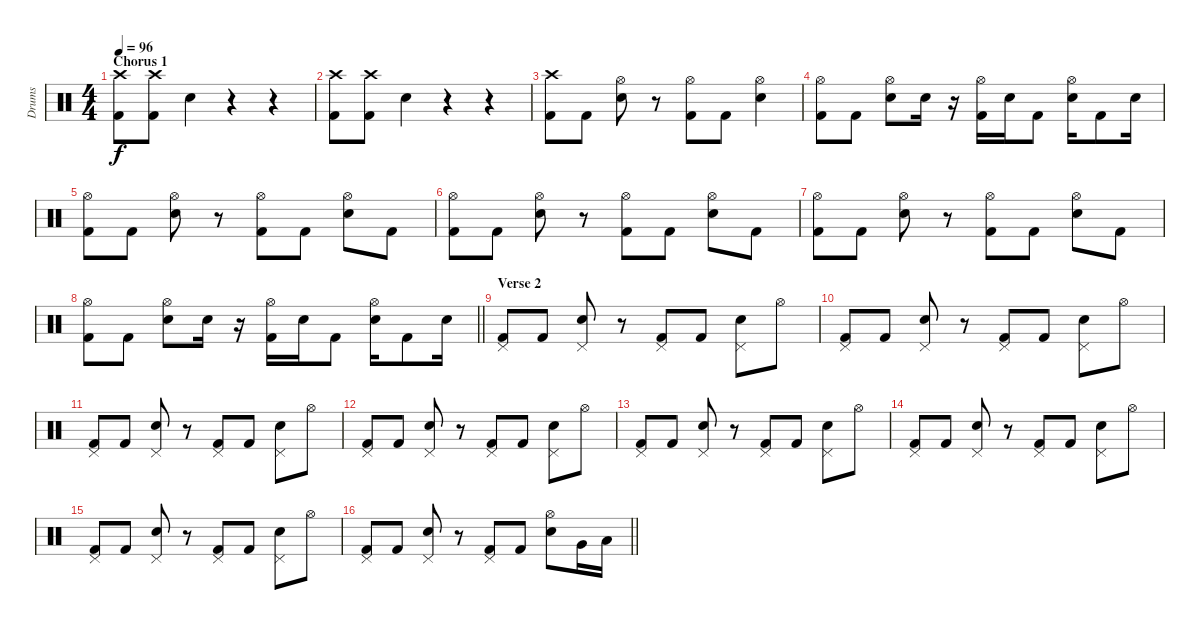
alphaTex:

\track ("Drums" "Drums") {instrument percussion}
\staff {score}
\articulation defaults
\ts (4 4)
\section ("" "Chorus 1")
\tempo 96
\clef neutral
\ks c
("Crash high (hit)" "Kick (hit) 2").8{dy f} ("Crash high (hit)" "Kick (hit) 2").8 "Electric Snare (hit)".4 r.4 r.4 |
("Crash high (hit)" "Kick (hit) 2").8 ("Crash high (hit)" "Kick (hit) 2").8 "Electric Snare (hit)".4 r.4 r.4 |
("Crash high (hit)" "Kick (hit) 2").8 "Kick (hit) 2".8 ("Hi-Hat (open)" "Electric Snare (hit)").8 r.8 ("Hi-Hat (open)" "Kick (hit) 2").8 "Kick (hit) 2".8 ("Hi-Hat (open)" "Electric Snare (hit)").4 |
("Hi-Hat (open)" "Kick (hit) 2").8 "Kick (hit) 2".8 ("Hi-Hat (open)" "Electric Snare (hit)").8 "Electric Snare (hit)".16 r.16 ("Hi-Hat (open)" "Kick (hit) 2").16 "Electric Snare (hit)".16 "Kick (hit) 2".8 ("Hi-Hat (open)" "Electric Snare (hit)").16 "Kick (hit) 2".8 "Electric Snare (hit)".16 |
("Hi-Hat (open)" "Kick (hit) 2").8 "Kick (hit) 2".8 ("Hi-Hat (open)" "Electric Snare (hit)").8 r.8 ("Hi-Hat (open)" "Kick (hit) 2").8 "Kick (hit) 2".8 ("Hi-Hat (open)" "Electric Snare (hit)").8 "Kick (hit) 2".8 |
("Hi-Hat (open)" "Kick (hit) 2").8 "Kick (hit) 2".8 ("Hi-Hat (open)" "Electric Snare (hit)").8 r.8 ("Hi-Hat (open)" "Kick (hit) 2").8 "Kick (hit) 2".8 ("Hi-Hat (open)" "Electric Snare (hit)").8 "Kick (hit) 2".8 |
("Hi-Hat (open)" "Kick (hit) 2").8 "Kick (hit) 2".8 ("Hi-Hat (open)" "Electric Snare (hit)").8 r.8 ("Hi-Hat (open)" "Kick (hit) 2").8 "Kick (hit) 2".8 ("Hi-Hat (open)" "Electric Snare (hit)").8 "Kick (hit) 2".8 |
\barLineRight lightlight
("Hi-Hat (open)" "Kick (hit) 2").8 "Kick (hit) 2".8 ("Hi-Hat (open)" "Electric Snare (hit)").8 "Electric Snare (hit)".16 r.16 ("Hi-Hat (open)" "Kick (hit) 2").16 "Electric Snare (hit)".16 "Kick (hit) 2".8 ("Hi-Hat (open)" "Electric Snare (hit)").16 "Kick (hit) 2".8 "Electric Snare (hit)".16 |
\section ("" "Verse 2")
("Pedal Hi-Hat (hit)" "Kick (hit) 2").8 "Kick (hit) 2".8 ("Pedal Hi-Hat (hit)" "Electric Snare (hit)").8 r.8 ("Pedal Hi-Hat (hit)" "Kick (hit) 2").8 "Kick (hit) 2".8 ("Pedal Hi-Hat (hit)" "Electric Snare (hit)").8 "Hi-Hat (open)".8 |
("Pedal Hi-Hat (hit)" "Kick (hit) 2").8 "Kick (hit) 2".8 ("Pedal Hi-Hat (hit)" "Electric Snare (hit)").8 r.8 ("Pedal Hi-Hat (hit)" "Kick (hit) 2").8 "Kick (hit) 2".8 ("Pedal Hi-Hat (hit)" "Electric Snare (hit)").8 "Hi-Hat (open)".8 |
("Pedal Hi-Hat (hit)" "Kick (hit) 2").8 "Kick (hit) 2".8 ("Pedal Hi-Hat (hit)" "Electric Snare (hit)").8 r.8 ("Pedal Hi-Hat (hit)" "Kick (hit) 2").8 "Kick (hit) 2".8 ("Pedal Hi-Hat (hit)" "Electric Snare (hit)").8 "Hi-Hat (open)".8 |
("Pedal Hi-Hat (hit)" "Kick (hit) 2").8 "Kick (hit) 2".8 ("Pedal Hi-Hat (hit)" "Electric Snare (hit)").8 r.8 ("Pedal Hi-Hat (hit)" "Kick (hit) 2").8 "Kick (hit) 2".8 ("Pedal Hi-Hat (hit)" "Electric Snare (hit)").8 "Hi-Hat (open)".8 |
("Pedal Hi-Hat (hit)" "Kick (hit) 2").8 "Kick (hit) 2".8 ("Pedal Hi-Hat (hit)" "Electric Snare (hit)").8 r.8 ("Pedal Hi-Hat (hit)" "Kick (hit) 2").8 "Kick (hit) 2".8 ("Pedal Hi-Hat (hit)" "Electric Snare (hit)").8 "Hi-Hat (open)".8 |
("Pedal Hi-Hat (hit)" "Kick (hit) 2").8 "Kick (hit) 2".8 ("Pedal Hi-Hat (hit)" "Electric Snare (hit)").8 r.8 ("Pedal Hi-Hat (hit)" "Kick (hit) 2").8 "Kick (hit) 2".8 ("Pedal Hi-Hat (hit)" "Electric Snare (hit)").8 "Hi-Hat (open)".8 |
("Pedal Hi-Hat (hit)" "Kick (hit) 2").8 "Kick (hit) 2".8 ("Pedal Hi-Hat (hit)" "Electric Snare (hit)").8 r.8 ("Pedal Hi-Hat (hit)" "Kick (hit) 2").8 "Kick (hit) 2".8 ("Pedal Hi-Hat (hit)" "Electric Snare (hit)").8 "Hi-Hat (open)".8 |
\barLineRight lightlight
("Pedal Hi-Hat (hit)" "Kick (hit) 2").8 "Kick (hit) 2".8 ("Pedal Hi-Hat (hit)" "Electric Snare (hit)").8 r.8 ("Pedal Hi-Hat (hit)" "Kick (hit) 2").8 "Kick (hit) 2".8 ("Hi-Hat (open)" "Electric Snare (hit)").8 "Very Low Tom (hit)".16 "Low Tom (hit)".16
